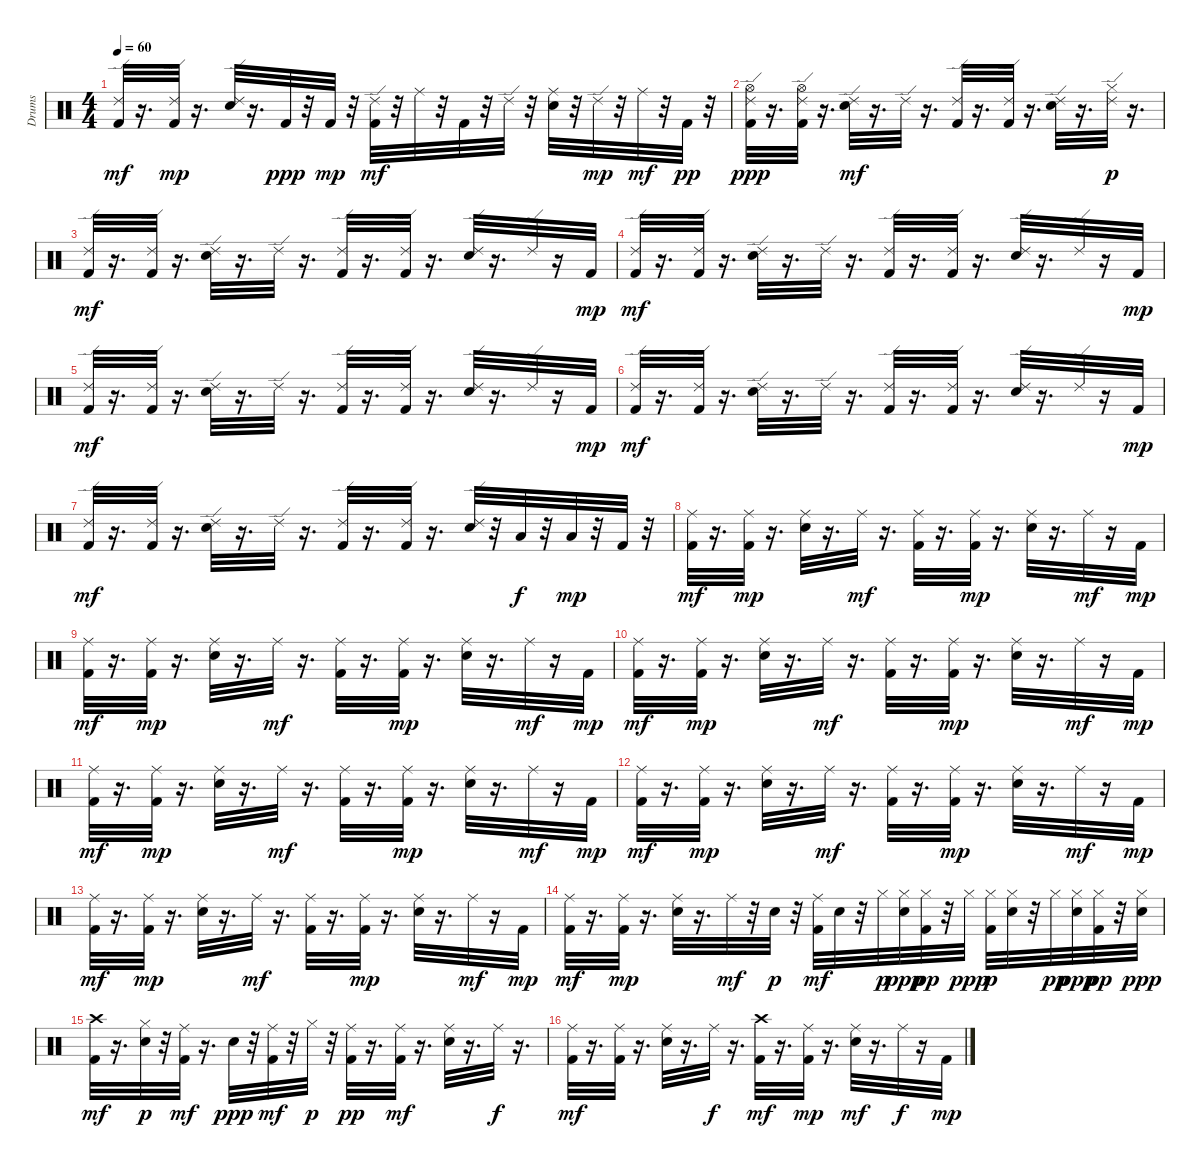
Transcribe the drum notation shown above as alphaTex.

\track ("Drums" "Drums") {instrument percussion}
\staff {score}
\articulation defaults
\ts (4 4)
\tempo 60
\clef neutral
\ks c
("Kick (hit) 2" "Ride (edge) 2").32{dy mf} r.16{d} ("Kick (hit) 2" "Ride (edge) 2").32{dy mp} r.16{d} ("Snare (hit) 2" "Ride (edge) 2").32 r.16{d} "Kick (hit) 2".32{dy ppp} r.32 "Kick (hit) 2".32{dy mp} r.32 ("Kick (hit) 2" "Ride (edge) 2").32{dy mf} r.32 "Ride (middle)".32 r.32 "Kick (hit) 2".32 r.32 "Ride (edge) 2".32 r.32 ("Snare (hit) 2" "Ride (middle)").32 r.32 "Ride (edge) 2".32{dy mp} r.32 "Ride (middle)".32{dy mf} r.32 "Kick (hit) 2".32{dy pp} r.32 |
("Kick (hit) 2" "Ride (edge) 2" "Hi-Hat (open)").32{dy ppp} r.16{d} ("Kick (hit) 2" "Ride (edge) 2" "Hi-Hat (open)").32 r.16{d} ("Snare (hit) 2" "Ride (edge) 2").32{dy mf} r.16{d} "Ride (edge) 2".32 r.16{d} ("Kick (hit) 2" "Ride (edge) 2").32 r.16{d} ("Kick (hit) 2" "Ride (edge) 2").32 r.16{d} ("Snare (hit) 2" "Ride (edge) 2").32 r.16{d} ("Hi-Hat (closed)" "Ride (edge) 2").32{dy p} r.16{d} |
("Kick (hit) 2" "Ride (edge) 2").32{dy mf} r.16{d} ("Kick (hit) 2" "Ride (edge) 2").32 r.16{d} ("Snare (hit) 2" "Ride (edge) 2").32 r.16{d} "Ride (edge) 2".32 r.16{d} ("Kick (hit) 2" "Ride (edge) 2").32 r.16{d} ("Kick (hit) 2" "Ride (edge) 2").32 r.16{d} ("Snare (hit) 2" "Ride (edge) 2").32 r.16{d} "Ride (edge) 2".32 r.16 "Kick (hit) 2".32{dy mp} |
("Kick (hit) 2" "Ride (edge) 2").32{dy mf} r.16{d} ("Kick (hit) 2" "Ride (edge) 2").32 r.16{d} ("Ride (edge) 2" "Snare (hit) 2").32 r.16{d} "Ride (edge) 2".32 r.16{d} ("Kick (hit) 2" "Ride (edge) 2").32 r.16{d} ("Kick (hit) 2" "Ride (edge) 2").32 r.16{d} ("Snare (hit) 2" "Ride (edge) 2").32 r.16{d} "Ride (edge) 2".32 r.16 "Kick (hit) 2".32{dy mp} |
("Kick (hit) 2" "Ride (edge) 2").32{dy mf} r.16{d} ("Kick (hit) 2" "Ride (edge) 2").32 r.16{d} ("Snare (hit) 2" "Ride (edge) 2").32 r.16{d} "Ride (edge) 2".32 r.16{d} ("Kick (hit) 2" "Ride (edge) 2").32 r.16{d} ("Kick (hit) 2" "Ride (edge) 2").32 r.16{d} ("Snare (hit) 2" "Ride (edge) 2").32 r.16{d} "Ride (edge) 2".32 r.16 "Kick (hit) 2".32{dy mp} |
("Kick (hit) 2" "Ride (edge) 2").32{dy mf} r.16{d} ("Kick (hit) 2" "Ride (edge) 2").32 r.16{d} ("Snare (hit) 2" "Ride (edge) 2").32 r.16{d} "Ride (edge) 2".32 r.16{d} ("Kick (hit) 2" "Ride (edge) 2").32 r.16{d} ("Kick (hit) 2" "Ride (edge) 2").32 r.16{d} ("Snare (hit) 2" "Ride (edge) 2").32 r.16{d} "Ride (edge) 2".32 r.16 "Kick (hit) 2".32{dy mp} |
("Kick (hit) 2" "Ride (edge) 2").32{dy mf} r.16{d} ("Kick (hit) 2" "Ride (edge) 2").32 r.16{d} ("Snare (hit) 2" "Ride (edge) 2").32 r.16{d} "Ride (edge) 2".32 r.16{d} ("Kick (hit) 2" "Ride (edge) 2").32 r.16{d} ("Kick (hit) 2" "Ride (edge) 2").32 r.16{d} ("Snare (hit) 2" "Ride (edge) 2").32 r.32 "Low Tom (hit)".32{dy f} r.32 "Low Tom (hit)".32{dy mp} r.32 "Kick (hit) 2".32 r.32 |
("Kick (hit) 2" "Ride (middle)").32{dy mf} r.16{d} ("Kick (hit) 2" "Ride (middle)").32{dy mp} r.16{d} ("Ride (middle)" "Snare (hit) 2").32 r.16{d} "Ride (middle)".32{dy mf} r.16{d} ("Kick (hit) 2" "Ride (middle)").32 r.16{d} ("Kick (hit) 2" "Ride (middle)").32{dy mp} r.16{d} ("Ride (middle)" "Snare (hit) 2").32 r.16{d} "Ride (middle)".32{dy mf} r.16 "Kick (hit) 2".32{dy mp} |
("Kick (hit) 2" "Ride (middle)").32{dy mf} r.16{d} ("Kick (hit) 2" "Ride (middle)").32{dy mp} r.16{d} ("Ride (middle)" "Snare (hit) 2").32 r.16{d} "Ride (middle)".32{dy mf} r.16{d} ("Kick (hit) 2" "Ride (middle)").32 r.16{d} ("Kick (hit) 2" "Ride (middle)").32{dy mp} r.16{d} ("Ride (middle)" "Snare (hit) 2").32 r.16{d} "Ride (middle)".32{dy mf} r.16 "Kick (hit) 2".32{dy mp} |
("Kick (hit) 2" "Ride (middle)").32{dy mf} r.16{d} ("Kick (hit) 2" "Ride (middle)").32{dy mp} r.16{d} ("Ride (middle)" "Snare (hit) 2").32 r.16{d} "Ride (middle)".32{dy mf} r.16{d} ("Kick (hit) 2" "Ride (middle)").32 r.16{d} ("Kick (hit) 2" "Ride (middle)").32{dy mp} r.16{d} ("Ride (middle)" "Snare (hit) 2").32 r.16{d} "Ride (middle)".32{dy mf} r.16 "Kick (hit) 2".32{dy mp} |
("Kick (hit) 2" "Ride (middle)").32{dy mf} r.16{d} ("Kick (hit) 2" "Ride (middle)").32{dy mp} r.16{d} ("Ride (middle)" "Snare (hit) 2").32 r.16{d} "Ride (middle)".32{dy mf} r.16{d} ("Kick (hit) 2" "Ride (middle)").32 r.16{d} ("Kick (hit) 2" "Ride (middle)").32{dy mp} r.16{d} ("Ride (middle)" "Snare (hit) 2").32 r.16{d} "Ride (middle)".32{dy mf} r.16 "Kick (hit) 2".32{dy mp} |
("Kick (hit) 2" "Ride (middle)").32{dy mf} r.16{d} ("Kick (hit) 2" "Ride (middle)").32{dy mp} r.16{d} ("Ride (middle)" "Snare (hit) 2").32 r.16{d} "Ride (middle)".32{dy mf} r.16{d} ("Kick (hit) 2" "Ride (middle)").32 r.16{d} ("Kick (hit) 2" "Ride (middle)").32{dy mp} r.16{d} ("Ride (middle)" "Snare (hit) 2").32 r.16{d} "Ride (middle)".32{dy mf} r.16 "Kick (hit) 2".32{dy mp} |
("Kick (hit) 2" "Ride (middle)").32{dy mf} r.16{d} ("Kick (hit) 2" "Ride (middle)").32{dy mp} r.16{d} ("Ride (middle)" "Snare (hit) 2").32 r.16{d} "Ride (middle)".32{dy mf} r.16{d} ("Kick (hit) 2" "Ride (middle)").32 r.16{d} ("Kick (hit) 2" "Ride (middle)").32{dy mp} r.16{d} ("Ride (middle)" "Snare (hit) 2").32 r.16{d} "Ride (middle)".32{dy mf} r.16 "Kick (hit) 2".32{dy mp} |
("Kick (hit) 2" "Ride (middle)").32{dy mf} r.16{d} ("Kick (hit) 2" "Ride (middle)").32{dy mp} r.16{d} ("Ride (middle)" "Snare (hit) 2").32 r.16{d} "Ride (middle)".32{dy mf} r.32 "Snare (hit) 2".32{dy p} r.32 ("Kick (hit) 2" "Ride (middle)").32{dy mf} "Snare (hit) 2".32 r.32 "Hi-Hat (closed)".32{dy p} ("Snare (hit) 2" "Hi-Hat (closed)").32{dy ppp} ("Kick (hit) 2" "Hi-Hat (closed)").32{dy pp} r.32 "Hi-Hat (closed)".32{dy ppp} ("Kick (hit) 2" "Hi-Hat (closed)").32{dy p} ("Snare (hit) 2" "Hi-Hat (closed)").32 r.32 "Hi-Hat (closed)".32{dy pp} ("Snare (hit) 2" "Hi-Hat (closed)").32{dy ppp} ("Kick (hit) 2" "Hi-Hat (closed)").32{dy pp} r.32 ("Snare (hit) 2" "Hi-Hat (closed)").32{dy ppp} |
("Kick (hit) 2" "Crash high (hit)").32{dy mf} r.16{d} ("Snare (hit) 2" "Hi-Hat (closed)").32{dy p} r.32 ("Kick (hit) 2" "Ride (middle)").32{dy mf} r.16{d} "Snare (hit) 2".32{dy ppp} r.32 ("Ride (middle)" "Kick (hit) 2").32{dy mf} r.32 "Hi-Hat (closed)".32{dy p} r.32 ("Ride (middle)" "Kick (hit) 2").32{dy pp} r.16{d} ("Kick (hit) 2" "Ride (middle)").32{dy mf} r.16{d} ("Snare (hit) 2" "Ride (middle)").32 r.16{d} "Ride (middle)".32{dy f} r.16{d} |
("Kick (hit) 2" "Ride (middle)").32{dy mf} r.16{d} ("Kick (hit) 2" "Ride (middle)").32 r.16{d} ("Snare (hit) 2" "Ride (middle)").32 r.16{d} "Ride (middle)".32{dy f} r.16{d} ("Kick (hit) 2" "Crash high (hit)").32{dy mf} r.16{d} ("Ride (middle)" "Kick (hit) 2").32{dy mp} r.16{d} ("Snare (hit) 2" "Ride (middle)").32{dy mf} r.16{d} "Ride (middle)".32{dy f} r.16 "Kick (hit) 2".32{dy mp}
